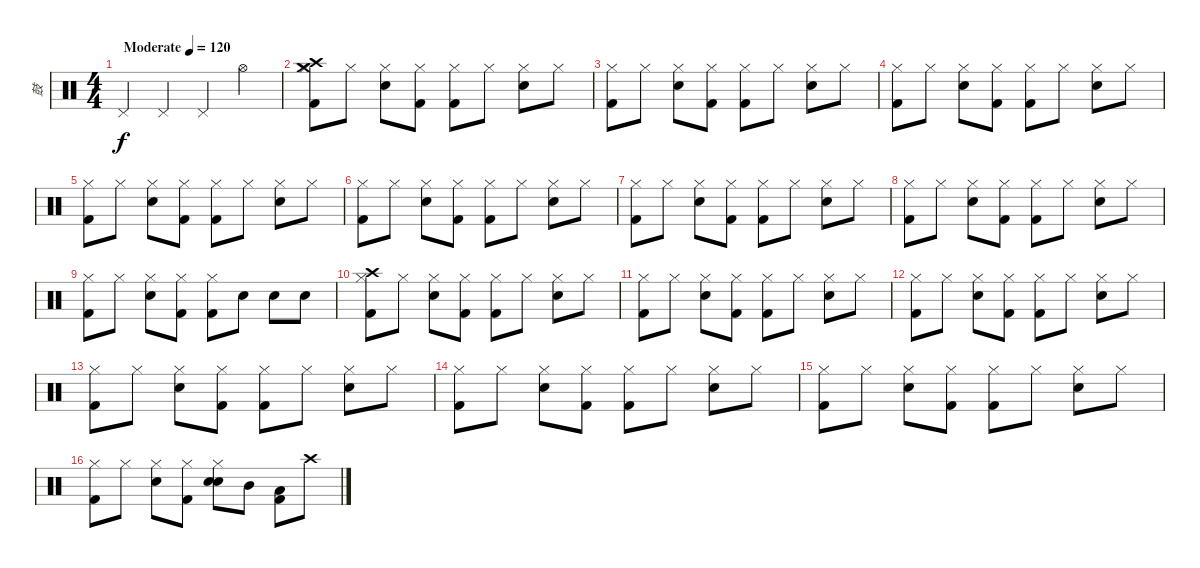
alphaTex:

\track ("鼓" "鼓") {instrument percussion}
\staff {score}
\articulation defaults
\ts (4 4)
\tempo (120 "Moderate")
\clef neutral
\ks c "Pedal Hi-Hat (hit)".4{dy f} "Pedal Hi-Hat (hit)".4 "Pedal Hi-Hat (hit)".4 "Hi-Hat (open)".4
|
("Hi-Hat (closed)" "Crash high (hit)" "Crash medium (hit)" "Kick (hit) 2").8 "Hi-Hat (closed)".8 ("Hi-Hat (closed)" "Snare (hit) 2").8 ("Hi-Hat (closed)" "Kick (hit) 2").8 ("Hi-Hat (closed)" "Kick (hit) 2").8 "Hi-Hat (closed)".8 ("Hi-Hat (closed)" "Snare (hit) 2").8 "Hi-Hat (closed)".8 |
("Hi-Hat (closed)" "Kick (hit) 2").8 "Hi-Hat (closed)".8 ("Hi-Hat (closed)" "Snare (hit) 2").8 ("Hi-Hat (closed)" "Kick (hit) 2").8 ("Hi-Hat (closed)" "Kick (hit) 2").8 "Hi-Hat (closed)".8 ("Hi-Hat (closed)" "Snare (hit) 2").8 "Hi-Hat (closed)".8 |
("Hi-Hat (closed)" "Kick (hit) 2").8 "Hi-Hat (closed)".8 ("Hi-Hat (closed)" "Snare (hit) 2").8 ("Hi-Hat (closed)" "Kick (hit) 2").8 ("Hi-Hat (closed)" "Kick (hit) 2").8 "Hi-Hat (closed)".8 ("Hi-Hat (closed)" "Snare (hit) 2").8 "Hi-Hat (closed)".8 |
("Hi-Hat (closed)" "Kick (hit) 2").8 "Hi-Hat (closed)".8 ("Hi-Hat (closed)" "Snare (hit) 2").8 ("Hi-Hat (closed)" "Kick (hit) 2").8 ("Hi-Hat (closed)" "Kick (hit) 2").8 "Hi-Hat (closed)".8 ("Hi-Hat (closed)" "Snare (hit) 2").8 "Hi-Hat (closed)".8 |
("Hi-Hat (closed)" "Kick (hit) 2").8 "Hi-Hat (closed)".8 ("Hi-Hat (closed)" "Snare (hit) 2").8 ("Hi-Hat (closed)" "Kick (hit) 2").8 ("Hi-Hat (closed)" "Kick (hit) 2").8 "Hi-Hat (closed)".8 ("Hi-Hat (closed)" "Snare (hit) 2").8 "Hi-Hat (closed)".8 |
("Hi-Hat (closed)" "Kick (hit) 2").8 "Hi-Hat (closed)".8 ("Hi-Hat (closed)" "Snare (hit) 2").8 ("Hi-Hat (closed)" "Kick (hit) 2").8 ("Hi-Hat (closed)" "Kick (hit) 2").8 "Hi-Hat (closed)".8 ("Hi-Hat (closed)" "Snare (hit) 2").8 "Hi-Hat (closed)".8 |
("Hi-Hat (closed)" "Kick (hit) 2").8 "Hi-Hat (closed)".8 ("Hi-Hat (closed)" "Snare (hit) 2").8 ("Hi-Hat (closed)" "Kick (hit) 2").8 ("Hi-Hat (closed)" "Kick (hit) 2").8 "Hi-Hat (closed)".8 ("Hi-Hat (closed)" "Snare (hit) 2").8 "Hi-Hat (closed)".8 |
("Hi-Hat (closed)" "Kick (hit) 2").8 "Hi-Hat (closed)".8 ("Hi-Hat (closed)" "Snare (hit) 2").8 ("Hi-Hat (closed)" "Kick (hit) 2").8 ("Hi-Hat (closed)" "Kick (hit) 2").8 "Snare (hit) 2".8 "Snare (hit) 2".8 "Snare (hit) 2".8 |
("Hi-Hat (closed)" "Crash high (hit)" "Kick (hit) 2").8 "Hi-Hat (closed)".8 ("Hi-Hat (closed)" "Snare (hit) 2").8 ("Hi-Hat (closed)" "Kick (hit) 2").8 ("Hi-Hat (closed)" "Kick (hit) 2").8 "Hi-Hat (closed)".8 ("Hi-Hat (closed)" "Snare (hit) 2").8 "Hi-Hat (closed)".8 |
("Hi-Hat (closed)" "Kick (hit) 2").8 "Hi-Hat (closed)".8 ("Hi-Hat (closed)" "Snare (hit) 2").8 ("Hi-Hat (closed)" "Kick (hit) 2").8 ("Hi-Hat (closed)" "Kick (hit) 2").8 "Hi-Hat (closed)".8 ("Hi-Hat (closed)" "Snare (hit) 2").8 "Hi-Hat (closed)".8 |
("Hi-Hat (closed)" "Kick (hit) 2").8 "Hi-Hat (closed)".8 ("Hi-Hat (closed)" "Snare (hit) 2").8 ("Hi-Hat (closed)" "Kick (hit) 2").8 ("Hi-Hat (closed)" "Kick (hit) 2").8 "Hi-Hat (closed)".8 ("Hi-Hat (closed)" "Snare (hit) 2").8 "Hi-Hat (closed)".8 |
("Hi-Hat (closed)" "Kick (hit) 2").8 "Hi-Hat (closed)".8 ("Hi-Hat (closed)" "Snare (hit) 2").8 ("Hi-Hat (closed)" "Kick (hit) 2").8 ("Hi-Hat (closed)" "Kick (hit) 2").8 "Hi-Hat (closed)".8 ("Hi-Hat (closed)" "Snare (hit) 2").8 "Hi-Hat (closed)".8 |
("Hi-Hat (closed)" "Kick (hit) 2").8 "Hi-Hat (closed)".8 ("Hi-Hat (closed)" "Snare (hit) 2").8 ("Hi-Hat (closed)" "Kick (hit) 2").8 ("Hi-Hat (closed)" "Kick (hit) 2").8 "Hi-Hat (closed)".8 ("Hi-Hat (closed)" "Snare (hit) 2").8 "Hi-Hat (closed)".8 |
("Hi-Hat (closed)" "Kick (hit) 2").8 "Hi-Hat (closed)".8 ("Hi-Hat (closed)" "Snare (hit) 2").8 ("Hi-Hat (closed)" "Kick (hit) 2").8 ("Hi-Hat (closed)" "Kick (hit) 2").8 "Hi-Hat (closed)".8 ("Hi-Hat (closed)" "Snare (hit) 2").8 "Hi-Hat (closed)".8 |
("Hi-Hat (closed)" "Kick (hit) 2").8 "Hi-Hat (closed)".8 ("Hi-Hat (closed)" "Snare (hit) 2").8 ("Hi-Hat (closed)" "Kick (hit) 2").8 ("Hi-Hat (closed)" "Snare (hit) 2" "Electric Snare (hit)").8 "Mid Tom (hit)".8 ("Low Tom (hit)" "Kick (hit) 2").8 "Crash high (hit)".8
